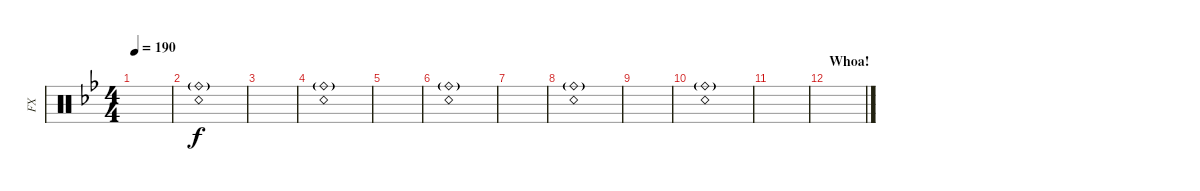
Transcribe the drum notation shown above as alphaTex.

\track ("FX" "FX") {instrument percussion}
\staff {score}
\articulation defaults
\ts (4 4)
\tempo 190
\clef neutral
\ks bb
|
("Snare (rim shot)" "Ride (bell)"{g}).1 |
|
("Snare (rim shot)" "Ride (bell)"{g}).1 |
|
("Snare (rim shot)" "Ride (bell)"{g}).1 |
|
("Snare (rim shot)" "Ride (bell)"{g}).1 |
|
("Snare (rim shot)" "Ride (bell)"{g}).1 |
|
\section ("" "Whoa!")
